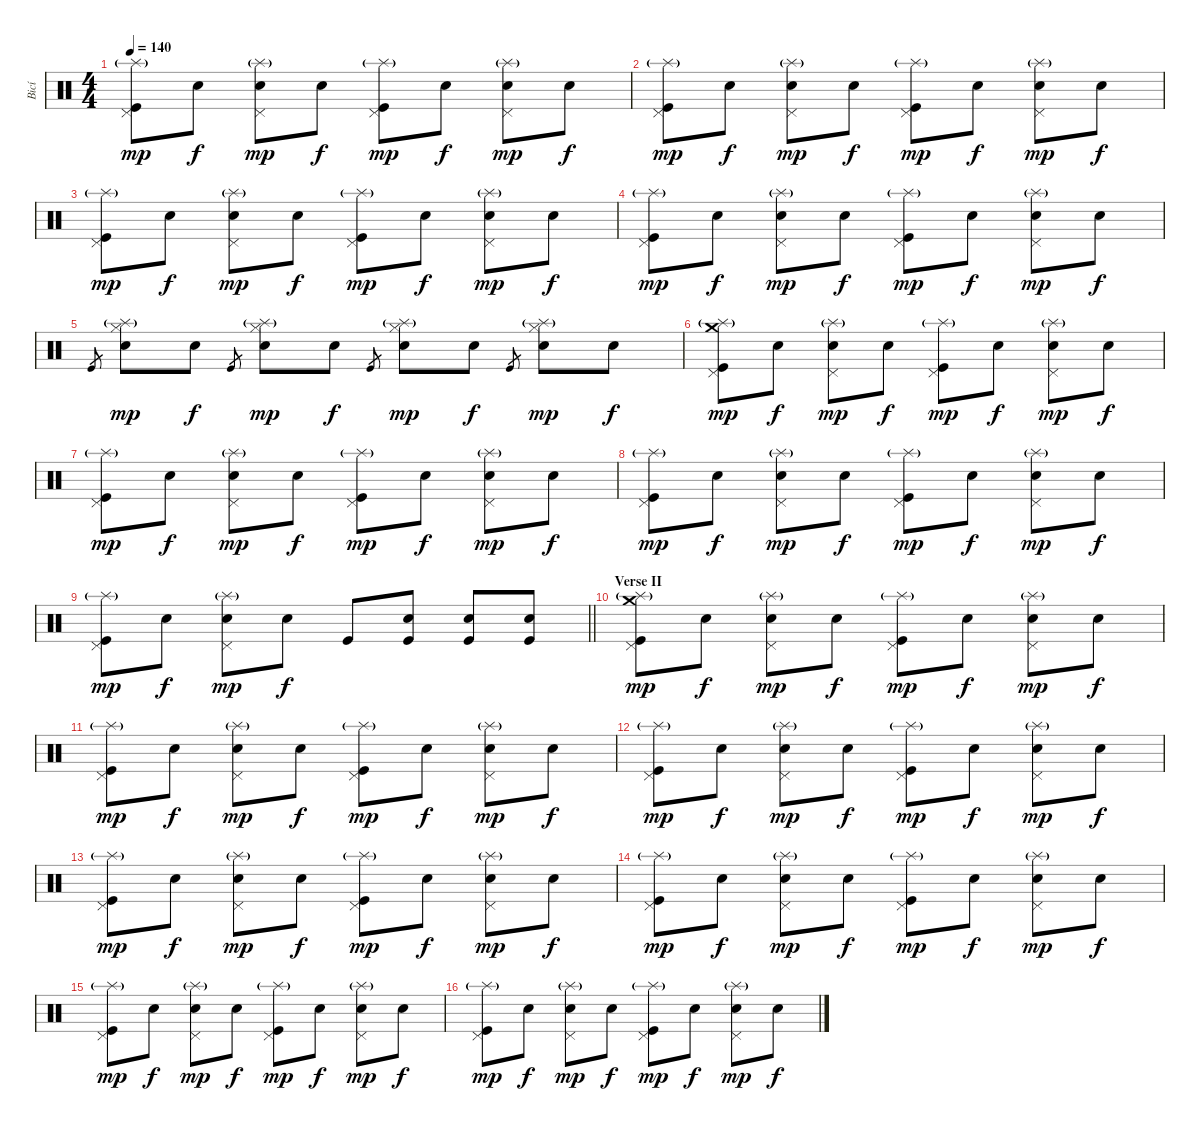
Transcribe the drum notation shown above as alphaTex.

\track ("Bicí" "Bicí") {instrument percussion}
\staff {score}
\articulation defaults
\ts (4 4)
\tempo 140
\clef neutral
\ks c
("Splash (hit)"{g} "Pedal Hi-Hat (hit)" "Kick (hit)").8{dy mp} "Snare (hit)".8{dy f} ("Splash (hit)"{g} "Pedal Hi-Hat (hit)" "Electric Snare (hit)").8{dy mp} "Snare (hit)".8{dy f} ("Splash (hit)"{g} "Pedal Hi-Hat (hit)" "Kick (hit)").8{dy mp} "Snare (hit)".8{dy f} ("Splash (hit)"{g} "Pedal Hi-Hat (hit)" "Electric Snare (hit)").8{dy mp} "Snare (hit)".8{dy f} |
("Splash (hit)"{g} "Pedal Hi-Hat (hit)" "Kick (hit)").8{dy mp} "Snare (hit)".8{dy f} ("Splash (hit)"{g} "Pedal Hi-Hat (hit)" "Electric Snare (hit)").8{dy mp} "Snare (hit)".8{dy f} ("Splash (hit)"{g} "Pedal Hi-Hat (hit)" "Kick (hit)").8{dy mp} "Snare (hit)".8{dy f} ("Splash (hit)"{g} "Pedal Hi-Hat (hit)" "Electric Snare (hit)").8{dy mp} "Snare (hit)".8{dy f} |
("Splash (hit)"{g} "Pedal Hi-Hat (hit)" "Kick (hit)").8{dy mp} "Snare (hit)".8{dy f} ("Splash (hit)"{g} "Pedal Hi-Hat (hit)" "Electric Snare (hit)").8{dy mp} "Snare (hit)".8{dy f} ("Splash (hit)"{g} "Pedal Hi-Hat (hit)" "Kick (hit)").8{dy mp} "Snare (hit)".8{dy f} ("Splash (hit)"{g} "Pedal Hi-Hat (hit)" "Electric Snare (hit)").8{dy mp} "Snare (hit)".8{dy f} |
("Splash (hit)"{g} "Pedal Hi-Hat (hit)" "Kick (hit)").8{dy mp} "Snare (hit)".8{dy f} ("Splash (hit)"{g} "Pedal Hi-Hat (hit)" "Electric Snare (hit)").8{dy mp} "Snare (hit)".8{dy f} ("Splash (hit)"{g} "Pedal Hi-Hat (hit)" "Kick (hit)").8{dy mp} "Snare (hit)".8{dy f} ("Splash (hit)"{g} "Pedal Hi-Hat (hit)" "Electric Snare (hit)").8{dy mp} "Snare (hit)".8{dy f} |
"Kick (hit)".8{gr} ("Splash (hit)"{g} "Hi-Hat (closed)" "Electric Snare (hit)").8{dy mp} "Snare (hit)".8{dy f} "Kick (hit)".8{gr} ("Splash (hit)"{g} "Hi-Hat (closed)" "Electric Snare (hit)").8{dy mp} "Snare (hit)".8{dy f} "Kick (hit)".8{gr} ("Splash (hit)"{g} "Hi-Hat (closed)" "Electric Snare (hit)").8{dy mp} "Snare (hit)".8{dy f} "Kick (hit)".8{gr} ("Splash (hit)"{g} "Hi-Hat (closed)" "Electric Snare (hit)").8{dy mp} "Snare (hit)".8{dy f} |
("Crash medium (hit)" "Splash (hit)"{g} "Pedal Hi-Hat (hit)" "Kick (hit)").8{dy mp} "Snare (hit)".8{dy f} ("Splash (hit)"{g} "Pedal Hi-Hat (hit)" "Electric Snare (hit)").8{dy mp} "Snare (hit)".8{dy f} ("Splash (hit)"{g} "Pedal Hi-Hat (hit)" "Kick (hit)").8{dy mp} "Snare (hit)".8{dy f} ("Splash (hit)"{g} "Pedal Hi-Hat (hit)" "Electric Snare (hit)").8{dy mp} "Snare (hit)".8{dy f} |
("Splash (hit)"{g} "Pedal Hi-Hat (hit)" "Kick (hit)").8{dy mp} "Snare (hit)".8{dy f} ("Splash (hit)"{g} "Pedal Hi-Hat (hit)" "Electric Snare (hit)").8{dy mp} "Snare (hit)".8{dy f} ("Splash (hit)"{g} "Pedal Hi-Hat (hit)" "Kick (hit)").8{dy mp} "Snare (hit)".8{dy f} ("Splash (hit)"{g} "Pedal Hi-Hat (hit)" "Electric Snare (hit)").8{dy mp} "Snare (hit)".8{dy f} |
("Splash (hit)"{g} "Pedal Hi-Hat (hit)" "Kick (hit)").8{dy mp} "Snare (hit)".8{dy f} ("Splash (hit)"{g} "Pedal Hi-Hat (hit)" "Electric Snare (hit)").8{dy mp} "Snare (hit)".8{dy f} ("Splash (hit)"{g} "Pedal Hi-Hat (hit)" "Kick (hit)").8{dy mp} "Snare (hit)".8{dy f} ("Splash (hit)"{g} "Pedal Hi-Hat (hit)" "Electric Snare (hit)").8{dy mp} "Snare (hit)".8{dy f} |
\barLineRight lightlight
("Splash (hit)"{g} "Pedal Hi-Hat (hit)" "Kick (hit)").8{dy mp} "Snare (hit)".8{dy f} ("Splash (hit)"{g} "Pedal Hi-Hat (hit)" "Electric Snare (hit)").8{dy mp} "Snare (hit)".8{dy f} "Kick (hit)".8 ("Kick (hit)" "Electric Snare (hit)").8 ("Kick (hit)" "Electric Snare (hit)").8 ("Kick (hit)" "Electric Snare (hit)").8 |
\section ("" "Verse II")
("Crash medium (hit)" "Splash (hit)"{g} "Pedal Hi-Hat (hit)" "Kick (hit)").8{dy mp} "Snare (hit)".8{dy f} ("Splash (hit)"{g} "Pedal Hi-Hat (hit)" "Electric Snare (hit)").8{dy mp} "Snare (hit)".8{dy f} ("Splash (hit)"{g} "Pedal Hi-Hat (hit)" "Kick (hit)").8{dy mp} "Snare (hit)".8{dy f} ("Splash (hit)"{g} "Pedal Hi-Hat (hit)" "Electric Snare (hit)").8{dy mp} "Snare (hit)".8{dy f} |
("Splash (hit)"{g} "Pedal Hi-Hat (hit)" "Kick (hit)").8{dy mp} "Snare (hit)".8{dy f} ("Splash (hit)"{g} "Pedal Hi-Hat (hit)" "Electric Snare (hit)").8{dy mp} "Snare (hit)".8{dy f} ("Splash (hit)"{g} "Pedal Hi-Hat (hit)" "Kick (hit)").8{dy mp} "Snare (hit)".8{dy f} ("Splash (hit)"{g} "Pedal Hi-Hat (hit)" "Electric Snare (hit)").8{dy mp} "Snare (hit)".8{dy f} |
("Splash (hit)"{g} "Pedal Hi-Hat (hit)" "Kick (hit)").8{dy mp} "Snare (hit)".8{dy f} ("Splash (hit)"{g} "Pedal Hi-Hat (hit)" "Electric Snare (hit)").8{dy mp} "Snare (hit)".8{dy f} ("Splash (hit)"{g} "Pedal Hi-Hat (hit)" "Kick (hit)").8{dy mp} "Snare (hit)".8{dy f} ("Splash (hit)"{g} "Pedal Hi-Hat (hit)" "Electric Snare (hit)").8{dy mp} "Snare (hit)".8{dy f} |
("Splash (hit)"{g} "Pedal Hi-Hat (hit)" "Kick (hit)").8{dy mp} "Snare (hit)".8{dy f} ("Splash (hit)"{g} "Pedal Hi-Hat (hit)" "Electric Snare (hit)").8{dy mp} "Snare (hit)".8{dy f} ("Splash (hit)"{g} "Pedal Hi-Hat (hit)" "Kick (hit)").8{dy mp} "Snare (hit)".8{dy f} ("Splash (hit)"{g} "Pedal Hi-Hat (hit)" "Electric Snare (hit)").8{dy mp} "Snare (hit)".8{dy f} |
("Splash (hit)"{g} "Pedal Hi-Hat (hit)" "Kick (hit)").8{dy mp} "Snare (hit)".8{dy f} ("Splash (hit)"{g} "Pedal Hi-Hat (hit)" "Electric Snare (hit)").8{dy mp} "Snare (hit)".8{dy f} ("Splash (hit)"{g} "Pedal Hi-Hat (hit)" "Kick (hit)").8{dy mp} "Snare (hit)".8{dy f} ("Splash (hit)"{g} "Pedal Hi-Hat (hit)" "Electric Snare (hit)").8{dy mp} "Snare (hit)".8{dy f} |
("Splash (hit)"{g} "Pedal Hi-Hat (hit)" "Kick (hit)").8{dy mp} "Snare (hit)".8{dy f} ("Splash (hit)"{g} "Pedal Hi-Hat (hit)" "Electric Snare (hit)").8{dy mp} "Snare (hit)".8{dy f} ("Splash (hit)"{g} "Pedal Hi-Hat (hit)" "Kick (hit)").8{dy mp} "Snare (hit)".8{dy f} ("Splash (hit)"{g} "Pedal Hi-Hat (hit)" "Electric Snare (hit)").8{dy mp} "Snare (hit)".8{dy f} |
("Splash (hit)"{g} "Pedal Hi-Hat (hit)" "Kick (hit)").8{dy mp} "Snare (hit)".8{dy f} ("Splash (hit)"{g} "Pedal Hi-Hat (hit)" "Electric Snare (hit)").8{dy mp} "Snare (hit)".8{dy f} ("Splash (hit)"{g} "Pedal Hi-Hat (hit)" "Kick (hit)").8{dy mp} "Snare (hit)".8{dy f} ("Splash (hit)"{g} "Pedal Hi-Hat (hit)" "Electric Snare (hit)").8{dy mp} "Snare (hit)".8{dy f}
